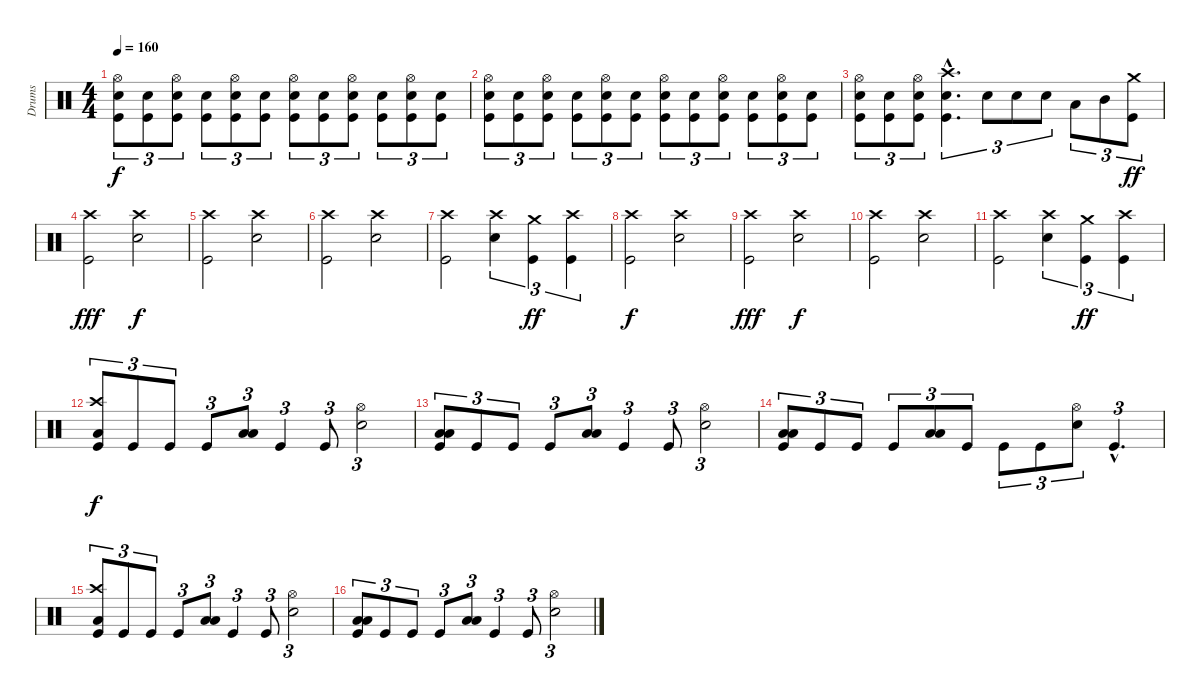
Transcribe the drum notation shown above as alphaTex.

\track ("Drums" "Drums") {instrument percussion}
\staff {score}
\articulation defaults
\ts (4 4)
\tempo 160
\clef neutral
\ks c
("Hi-Hat (open)" "Electric Snare (hit)" "Kick (hit)").8{tu (3 2) dy f} ("Electric Snare (hit)" "Kick (hit)").8{tu (3 2)} ("Hi-Hat (open)" "Electric Snare (hit)" "Kick (hit)").8{tu (3 2)} ("Electric Snare (hit)" "Kick (hit)").8{tu (3 2)} ("Hi-Hat (open)" "Electric Snare (hit)" "Kick (hit)").8{tu (3 2)} ("Electric Snare (hit)" "Kick (hit)").8{tu (3 2)} ("Hi-Hat (open)" "Electric Snare (hit)" "Kick (hit)").8{tu (3 2)} ("Electric Snare (hit)" "Kick (hit)").8{tu (3 2)} ("Hi-Hat (open)" "Electric Snare (hit)" "Kick (hit)").8{tu (3 2)} ("Electric Snare (hit)" "Kick (hit)").8{tu (3 2)} ("Hi-Hat (open)" "Electric Snare (hit)" "Kick (hit)").8{tu (3 2)} ("Electric Snare (hit)" "Kick (hit)").8{tu (3 2)} |
("Hi-Hat (open)" "Electric Snare (hit)" "Kick (hit)").8{tu (3 2)} ("Electric Snare (hit)" "Kick (hit)").8{tu (3 2)} ("Hi-Hat (open)" "Electric Snare (hit)" "Kick (hit)").8{tu (3 2)} ("Electric Snare (hit)" "Kick (hit)").8{tu (3 2)} ("Hi-Hat (open)" "Electric Snare (hit)" "Kick (hit)").8{tu (3 2)} ("Electric Snare (hit)" "Kick (hit)").8{tu (3 2)} ("Hi-Hat (open)" "Electric Snare (hit)" "Kick (hit)").8{tu (3 2)} ("Electric Snare (hit)" "Kick (hit)").8{tu (3 2)} ("Hi-Hat (open)" "Electric Snare (hit)" "Kick (hit)").8{tu (3 2)} ("Electric Snare (hit)" "Kick (hit)").8{tu (3 2)} ("Hi-Hat (open)" "Electric Snare (hit)" "Kick (hit)").8{tu (3 2)} ("Electric Snare (hit)" "Kick (hit)").8{tu (3 2)} |
("Hi-Hat (open)" "Electric Snare (hit)" "Kick (hit)").8{tu (3 2)} ("Electric Snare (hit)" "Kick (hit)").8{tu (3 2)} ("Hi-Hat (open)" "Electric Snare (hit)" "Kick (hit)").8{tu (3 2)} ("Crash high (hit)"{hac} "Electric Snare (hit)"{hac} "Kick (hit)"{hac}).4{d tu (3 2)} "Electric Snare (hit)".8{tu (3 2)} "Electric Snare (hit)".8{tu (3 2)} "Electric Snare (hit)".8{tu (3 2)} "Low Tom (hit)".8{tu (3 2)} "Mid Tom (hit)".8{tu (3 2)} ("Crash medium (hit)" "Kick (hit)").8{tu (3 2) dy ff} |
("Crash high (hit)" "Kick (hit)").2{dy fff} ("Crash high (hit)" "Electric Snare (hit)").2{dy f} |
("Crash high (hit)" "Kick (hit)").2 ("Crash high (hit)" "Electric Snare (hit)").2 |
("Crash high (hit)" "Kick (hit)").2 ("Crash high (hit)" "Electric Snare (hit)").2 |
("Crash high (hit)" "Kick (hit)").2 ("Crash high (hit)" "Electric Snare (hit)").4{tu (3 2)} ("Crash medium (hit)" "Kick (hit)").4{tu (3 2) dy ff} ("Crash high (hit)" "Kick (hit)").4{tu (3 2)} |
("Crash high (hit)" "Kick (hit)").2{dy f} ("Crash high (hit)" "Electric Snare (hit)").2 |
("Crash high (hit)" "Kick (hit)").2{dy fff} ("Crash high (hit)" "Electric Snare (hit)").2{dy f} |
("Crash high (hit)" "Kick (hit)").2 ("Crash high (hit)" "Electric Snare (hit)").2 |
("Crash high (hit)" "Kick (hit)").2 ("Crash high (hit)" "Electric Snare (hit)").4{tu (3 2)} ("Crash medium (hit)" "Kick (hit)").4{tu (3 2) dy ff} ("Crash high (hit)" "Kick (hit)").4{tu (3 2)} |
("Low Floor Tom (hit)" "Crash high (hit)" "Kick (hit)").8{tu (3 2) dy f} "Kick (hit)".8{tu (3 2)} "Kick (hit)".8{tu (3 2)} "Kick (hit)".8{tu (3 2)} ("Low Floor Tom (hit)" "Low Tom (hit)").8{tu (3 2)} "Kick (hit)".4{tu (3 2)} "Kick (hit)".8{tu (3 2)} ("Hi-Hat (open)" "Electric Snare (hit)").2{tu (3 2)} |
("Low Tom (hit)" "Low Floor Tom (hit)" "Kick (hit)").8{tu (3 2)} "Kick (hit)".8{tu (3 2)} "Kick (hit)".8{tu (3 2)} "Kick (hit)".8{tu (3 2)} ("Low Floor Tom (hit)" "Low Tom (hit)").8{tu (3 2)} "Kick (hit)".4{tu (3 2)} "Kick (hit)".8{tu (3 2)} ("Hi-Hat (open)" "Electric Snare (hit)").2{tu (3 2)} |
("Low Tom (hit)" "Low Floor Tom (hit)" "Kick (hit)").8{tu (3 2)} "Kick (hit)".8{tu (3 2)} "Kick (hit)".8{tu (3 2)} "Kick (hit)".8{tu (3 2)} ("Low Floor Tom (hit)" "Low Tom (hit)").8{tu (3 2)} "Kick (hit)".8{tu (3 2)} "Kick (hit)".8{tu (3 2)} "Kick (hit)".8{tu (3 2)} ("Hi-Hat (open)" "Electric Snare (hit)").8{tu (3 2)} "Kick (hit)"{hac}.4{d tu (3 2)} |
("Low Floor Tom (hit)" "Crash high (hit)" "Kick (hit)").8{tu (3 2)} "Kick (hit)".8{tu (3 2)} "Kick (hit)".8{tu (3 2)} "Kick (hit)".8{tu (3 2)} ("Low Floor Tom (hit)" "Low Tom (hit)").8{tu (3 2)} "Kick (hit)".4{tu (3 2)} "Kick (hit)".8{tu (3 2)} ("Hi-Hat (open)" "Electric Snare (hit)").2{tu (3 2)} |
("Low Tom (hit)" "Low Floor Tom (hit)" "Kick (hit)").8{tu (3 2)} "Kick (hit)".8{tu (3 2)} "Kick (hit)".8{tu (3 2)} "Kick (hit)".8{tu (3 2)} ("Low Floor Tom (hit)" "Low Tom (hit)").8{tu (3 2)} "Kick (hit)".4{tu (3 2)} "Kick (hit)".8{tu (3 2)} ("Hi-Hat (open)" "Electric Snare (hit)").2{tu (3 2)}
